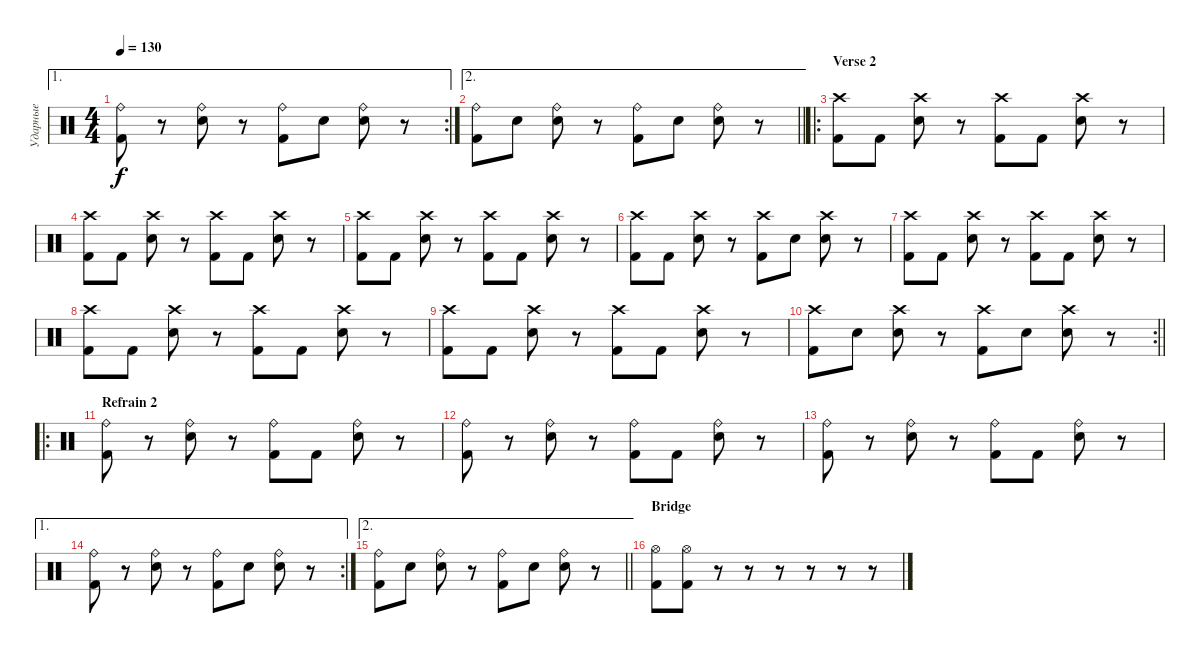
\track ("Ударные" "Ударные") {instrument percussion}
\staff {score}
\articulation defaults
\ae 1
\rc 2
\ts (4 4)
\tempo 130
\clef neutral
\ks c
("Ride (bell)" "Kick (hit) 2").8{dy f} r.8 ("Ride (bell)" "Electric Snare (hit)").8 r.8 ("Ride (bell)" "Kick (hit) 2").8 "Electric Snare (hit)".8 ("Ride (bell)" "Electric Snare (hit)").8 r.8 |
\ae 2
\barLineRight lightlight
("Ride (bell)" "Kick (hit) 2").8 "Electric Snare (hit)".8 ("Ride (bell)" "Electric Snare (hit)").8 r.8 ("Ride (bell)" "Kick (hit) 2").8 "Electric Snare (hit)".8 ("Ride (bell)" "Electric Snare (hit)").8 r.8 |
\ro
\section ("" "Verse 2")
("Crash high (hit)" "Kick (hit) 2").8 "Kick (hit) 2".8 ("Crash high (hit)" "Electric Snare (hit)").8 r.8 ("Crash high (hit)" "Kick (hit) 2").8 "Kick (hit) 2".8 ("Crash high (hit)" "Electric Snare (hit)").8 r.8 |
("Crash high (hit)" "Kick (hit) 2").8 "Kick (hit) 2".8 ("Crash high (hit)" "Electric Snare (hit)").8 r.8 ("Crash high (hit)" "Kick (hit) 2").8 "Kick (hit) 2".8 ("Crash high (hit)" "Electric Snare (hit)").8 r.8 |
("Crash high (hit)" "Kick (hit) 2").8 "Kick (hit) 2".8 ("Crash high (hit)" "Electric Snare (hit)").8 r.8 ("Crash high (hit)" "Kick (hit) 2").8 "Kick (hit) 2".8 ("Crash high (hit)" "Electric Snare (hit)").8 r.8 |
("Crash high (hit)" "Kick (hit) 2").8 "Kick (hit) 2".8 ("Crash high (hit)" "Electric Snare (hit)").8 r.8 ("Crash high (hit)" "Kick (hit) 2").8 "Electric Snare (hit)".8 ("Crash high (hit)" "Electric Snare (hit)").8 r.8 |
("Crash high (hit)" "Kick (hit) 2").8 "Kick (hit) 2".8 ("Crash high (hit)" "Electric Snare (hit)").8 r.8 ("Crash high (hit)" "Kick (hit) 2").8 "Kick (hit) 2".8 ("Crash high (hit)" "Electric Snare (hit)").8 r.8 |
("Crash high (hit)" "Kick (hit) 2").8 "Kick (hit) 2".8 ("Crash high (hit)" "Electric Snare (hit)").8 r.8 ("Crash high (hit)" "Kick (hit) 2").8 "Kick (hit) 2".8 ("Crash high (hit)" "Electric Snare (hit)").8 r.8 |
("Crash high (hit)" "Kick (hit) 2").8 "Kick (hit) 2".8 ("Crash high (hit)" "Electric Snare (hit)").8 r.8 ("Crash high (hit)" "Kick (hit) 2").8 "Kick (hit) 2".8 ("Crash high (hit)" "Electric Snare (hit)").8 r.8 |
\rc 2
\barLineRight lightlight
("Crash high (hit)" "Kick (hit) 2").8 "Electric Snare (hit)".8 ("Crash high (hit)" "Electric Snare (hit)").8 r.8 ("Crash high (hit)" "Kick (hit) 2").8 "Electric Snare (hit)".8 ("Crash high (hit)" "Electric Snare (hit)").8 r.8 |
\ro
\section ("" "Refrain 2")
("Ride (bell)" "Kick (hit) 2").8 r.8 ("Ride (bell)" "Electric Snare (hit)").8 r.8 ("Ride (bell)" "Kick (hit) 2").8 "Kick (hit) 2".8 ("Ride (bell)" "Electric Snare (hit)").8 r.8 |
("Ride (bell)" "Kick (hit) 2").8 r.8 ("Ride (bell)" "Electric Snare (hit)").8 r.8 ("Ride (bell)" "Kick (hit) 2").8 "Kick (hit) 2".8 ("Ride (bell)" "Electric Snare (hit)").8 r.8 |
("Ride (bell)" "Kick (hit) 2").8 r.8 ("Ride (bell)" "Electric Snare (hit)").8 r.8 ("Ride (bell)" "Kick (hit) 2").8 "Kick (hit) 2".8 ("Ride (bell)" "Electric Snare (hit)").8 r.8 |
\ae 1
\rc 2
("Ride (bell)" "Kick (hit) 2").8 r.8 ("Ride (bell)" "Electric Snare (hit)").8 r.8 ("Ride (bell)" "Kick (hit) 2").8 "Electric Snare (hit)".8 ("Ride (bell)" "Electric Snare (hit)").8 r.8 |
\ae 2
\barLineRight lightlight
("Ride (bell)" "Kick (hit) 2").8 "Electric Snare (hit)".8 ("Ride (bell)" "Electric Snare (hit)").8 r.8 ("Ride (bell)" "Kick (hit) 2").8 "Electric Snare (hit)".8 ("Ride (bell)" "Electric Snare (hit)").8 r.8 |
\section ("" "Bridge")
("Hi-Hat (open)" "Kick (hit) 2").8 ("Hi-Hat (open)" "Kick (hit) 2").8 r.8 r.8 r.8 r.8 r.8 r.8
